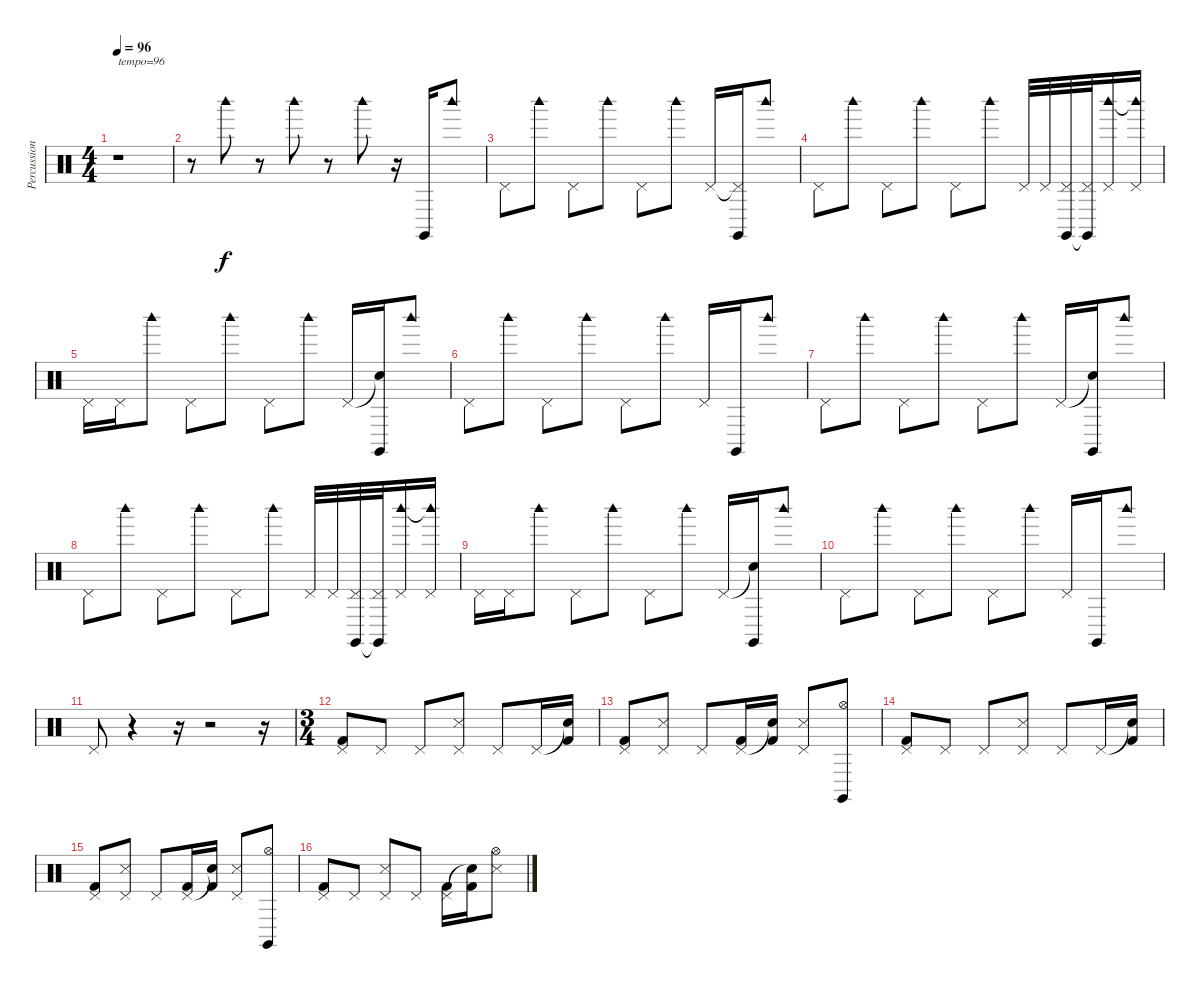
\track ("Percussion" "Percussion") {instrument percussion}
\staff {score}
\articulation defaults
\ts (4 4)
\tempo 96
\clef neutral
\ks c
r.1{txt "tempo=96" dy f volume 14} |
r.8 "Woodblock high (hit)".8 r.8 "Woodblock high (hit)".8 r.8 "Woodblock high (hit)".8 r.16 "Claves (hit)".16 "Woodblock high (hit)".8 |
"Pedal Hi-Hat (hit)".8 "Woodblock high (hit)".8 "Pedal Hi-Hat (hit)".8 "Woodblock high (hit)".8 "Pedal Hi-Hat (hit)".8 "Woodblock high (hit)".8 "Pedal Hi-Hat (hit)".16 ("Pedal Hi-Hat (hit)"{t} "Claves (hit)").16 "Woodblock high (hit)".8 |
"Pedal Hi-Hat (hit)".8 "Woodblock high (hit)".8 "Pedal Hi-Hat (hit)".8 "Woodblock high (hit)".8 "Pedal Hi-Hat (hit)".8 "Woodblock high (hit)".8 "Pedal Hi-Hat (hit)".32 "Pedal Hi-Hat (hit)".32 ("Pedal Hi-Hat (hit)" "Claves (hit)").32 ("Pedal Hi-Hat (hit)" "Claves (hit)"{t}).32 ("Pedal Hi-Hat (hit)" "Woodblock high (hit)").16 ("Pedal Hi-Hat (hit)" "Woodblock high (hit)"{t}).16 |
"Pedal Hi-Hat (hit)".16 "Pedal Hi-Hat (hit)".16 "Woodblock high (hit)".8 "Pedal Hi-Hat (hit)".8 "Woodblock high (hit)".8 "Pedal Hi-Hat (hit)".8 "Woodblock high (hit)".8 "Pedal Hi-Hat (hit)".16 ("Snare (hit)"{t} "Claves (hit)").16 "Woodblock high (hit)".8 |
"Pedal Hi-Hat (hit)".8 "Woodblock high (hit)".8 "Pedal Hi-Hat (hit)".8 "Woodblock high (hit)".8 "Pedal Hi-Hat (hit)".8 "Woodblock high (hit)".8 "Pedal Hi-Hat (hit)".16 "Claves (hit)".16 "Woodblock high (hit)".8 |
"Pedal Hi-Hat (hit)".8 "Woodblock high (hit)".8 "Pedal Hi-Hat (hit)".8 "Woodblock high (hit)".8 "Pedal Hi-Hat (hit)".8 "Woodblock high (hit)".8 "Pedal Hi-Hat (hit)".16 ("Snare (hit)"{t} "Claves (hit)").16 "Woodblock high (hit)".8 |
"Pedal Hi-Hat (hit)".8 "Woodblock high (hit)".8 "Pedal Hi-Hat (hit)".8 "Woodblock high (hit)".8 "Pedal Hi-Hat (hit)".8 "Woodblock high (hit)".8 "Pedal Hi-Hat (hit)".32 "Pedal Hi-Hat (hit)".32 ("Pedal Hi-Hat (hit)" "Claves (hit)").32 ("Pedal Hi-Hat (hit)" "Claves (hit)"{t}).32 ("Pedal Hi-Hat (hit)" "Woodblock high (hit)").16 ("Pedal Hi-Hat (hit)" "Woodblock high (hit)"{t}).16 |
"Pedal Hi-Hat (hit)".16 "Pedal Hi-Hat (hit)".16 "Woodblock high (hit)".8 "Pedal Hi-Hat (hit)".8 "Woodblock high (hit)".8 "Pedal Hi-Hat (hit)".8 "Woodblock high (hit)".8 "Pedal Hi-Hat (hit)".16 ("Snare (hit)"{t} "Claves (hit)").16 "Woodblock high (hit)".8 |
"Pedal Hi-Hat (hit)".8 "Woodblock high (hit)".8 "Pedal Hi-Hat (hit)".8 "Woodblock high (hit)".8 "Pedal Hi-Hat (hit)".8 "Woodblock high (hit)".8 "Pedal Hi-Hat (hit)".16 "Claves (hit)".16 "Woodblock high (hit)".8 |
"Pedal Hi-Hat (hit)".8 r.4 r.16 r.2 r.16 |
\ts (3 4)
("Pedal Hi-Hat (hit)" "Kick (hit) 2").8 "Pedal Hi-Hat (hit)".8 "Pedal Hi-Hat (hit)".8 ("Pedal Hi-Hat (hit)" "Snare (side stick) 3").8 "Pedal Hi-Hat (hit)".8 "Pedal Hi-Hat (hit)".16 ("Snare (hit)"{t} "Kick (hit) 2").16 |
("Pedal Hi-Hat (hit)" "Kick (hit) 2").8 ("Pedal Hi-Hat (hit)" "Snare (side stick) 3").8 "Pedal Hi-Hat (hit)".8 ("Pedal Hi-Hat (hit)" "Kick (hit) 2").16 ("Snare (hit)"{t} "Kick (hit) 2").16 ("Pedal Hi-Hat (hit)" "Snare (side stick) 3").8 ("Hi-Hat (open)" "Claves (hit)").8 |
("Pedal Hi-Hat (hit)" "Kick (hit) 2").8 "Pedal Hi-Hat (hit)".8 "Pedal Hi-Hat (hit)".8 ("Pedal Hi-Hat (hit)" "Snare (side stick) 3").8 "Pedal Hi-Hat (hit)".8 "Pedal Hi-Hat (hit)".16 ("Snare (hit)"{t} "Kick (hit) 2").16 |
("Pedal Hi-Hat (hit)" "Kick (hit) 2").8 ("Pedal Hi-Hat (hit)" "Snare (side stick) 3").8 "Pedal Hi-Hat (hit)".8 ("Pedal Hi-Hat (hit)" "Kick (hit) 2").16 ("Snare (hit)"{t} "Kick (hit) 2").16 ("Pedal Hi-Hat (hit)" "Snare (side stick) 3").8 ("Hi-Hat (open)" "Claves (hit)").8 |
("Pedal Hi-Hat (hit)" "Kick (hit) 2").8 "Pedal Hi-Hat (hit)".8 ("Pedal Hi-Hat (hit)" "Snare (side stick) 3").8 "Pedal Hi-Hat (hit)".8 ("Pedal Hi-Hat (hit)" "Kick (hit) 2").16 ("Snare (hit)"{t} "Kick (hit) 2").16 ("Hi-Hat (open)" "Snare (side stick) 3").8
